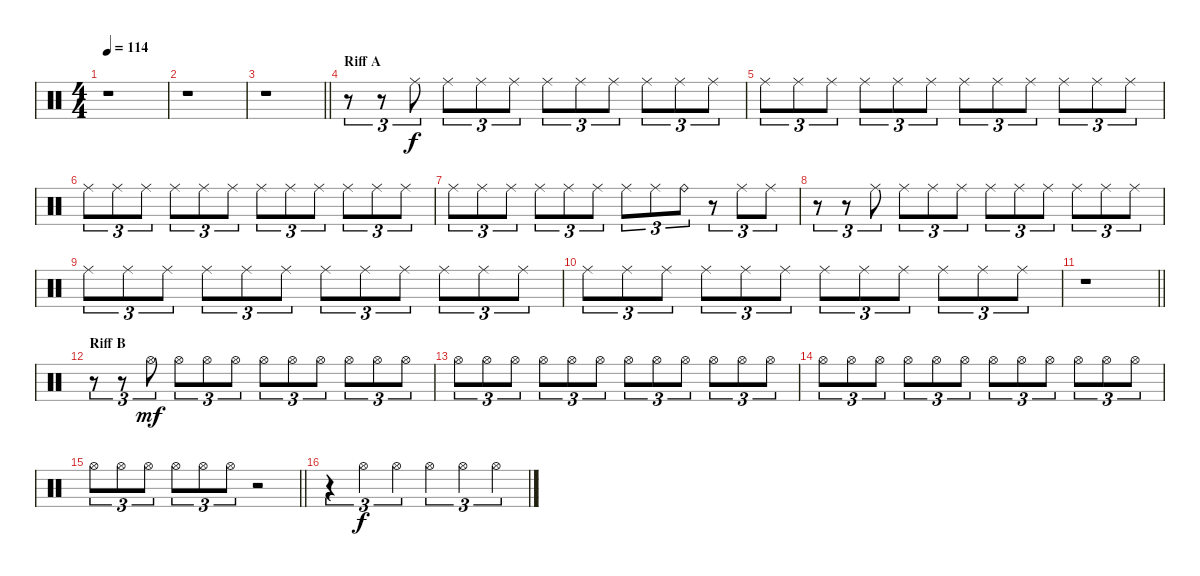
\track "" {instrument percussion}
\staff {score}
\articulation defaults
\ts (4 4)
\tempo 114
\clef neutral
\ks c
r.1{dy f} |
r.1 |
\barLineRight lightlight
r.1 |
\section ("" "Riff A")
r.8{tu (3 2)} r.8{tu (3 2)} "Ride (middle)".8{tu (3 2)} "Ride (middle)".8{tu (3 2)} "Ride (middle)".8{tu (3 2)} "Ride (middle)".8{tu (3 2)} "Ride (middle)".8{tu (3 2)} "Ride (middle)".8{tu (3 2)} "Ride (middle)".8{tu (3 2)} "Ride (middle)".8{tu (3 2)} "Ride (middle)".8{tu (3 2)} "Ride (middle)".8{tu (3 2)} |
"Ride (middle)".8{tu (3 2)} "Ride (middle)".8{tu (3 2)} "Ride (middle)".8{tu (3 2)} "Ride (middle)".8{tu (3 2)} "Ride (middle)".8{tu (3 2)} "Ride (middle)".8{tu (3 2)} "Ride (middle)".8{tu (3 2)} "Ride (middle)".8{tu (3 2)} "Ride (middle)".8{tu (3 2)} "Ride (middle)".8{tu (3 2)} "Ride (middle)".8{tu (3 2)} "Ride (middle)".8{tu (3 2)} |
"Ride (middle)".8{tu (3 2)} "Ride (middle)".8{tu (3 2)} "Ride (middle)".8{tu (3 2)} "Ride (middle)".8{tu (3 2)} "Ride (middle)".8{tu (3 2)} "Ride (middle)".8{tu (3 2)} "Ride (middle)".8{tu (3 2)} "Ride (middle)".8{tu (3 2)} "Ride (middle)".8{tu (3 2)} "Ride (middle)".8{tu (3 2)} "Ride (middle)".8{tu (3 2)} "Ride (middle)".8{tu (3 2)} |
"Ride (middle)".8{tu (3 2)} "Ride (middle)".8{tu (3 2)} "Ride (middle)".8{tu (3 2)} "Ride (middle)".8{tu (3 2)} "Ride (middle)".8{tu (3 2)} "Ride (middle)".8{tu (3 2)} "Ride (middle)".8{tu (3 2)} "Ride (middle)".8{tu (3 2)} "Ride (bell)".8{tu (3 2)} r.8{tu (3 2)} "Ride (middle)".8{tu (3 2)} "Ride (middle)".8{tu (3 2)} |
r.8{tu (3 2)} r.8{tu (3 2)} "Ride (middle)".8{tu (3 2)} "Ride (middle)".8{tu (3 2)} "Ride (middle)".8{tu (3 2)} "Ride (middle)".8{tu (3 2)} "Ride (middle)".8{tu (3 2)} "Ride (middle)".8{tu (3 2)} "Ride (middle)".8{tu (3 2)} "Ride (middle)".8{tu (3 2)} "Ride (middle)".8{tu (3 2)} "Ride (middle)".8{tu (3 2)} |
"Ride (middle)".8{tu (3 2)} "Ride (middle)".8{tu (3 2)} "Ride (middle)".8{tu (3 2)} "Ride (middle)".8{tu (3 2)} "Ride (middle)".8{tu (3 2)} "Ride (middle)".8{tu (3 2)} "Ride (middle)".8{tu (3 2)} "Ride (middle)".8{tu (3 2)} "Ride (middle)".8{tu (3 2)} "Ride (middle)".8{tu (3 2)} "Ride (middle)".8{tu (3 2)} "Ride (middle)".8{tu (3 2)} |
"Ride (middle)".8{tu (3 2)} "Ride (middle)".8{tu (3 2)} "Ride (middle)".8{tu (3 2)} "Ride (middle)".8{tu (3 2)} "Ride (middle)".8{tu (3 2)} "Ride (middle)".8{tu (3 2)} "Ride (middle)".8{tu (3 2)} "Ride (middle)".8{tu (3 2)} "Ride (middle)".8{tu (3 2)} "Ride (middle)".8{tu (3 2)} "Ride (middle)".8{tu (3 2)} "Ride (middle)".8{tu (3 2)} |
\barLineRight lightlight
r.1 |
\section ("" "Riff B")
r.8{tu (3 2)} r.8{tu (3 2)} "Hi-Hat (open)".8{tu (3 2) dy mf} "Hi-Hat (open)".8{tu (3 2)} "Hi-Hat (open)".8{tu (3 2)} "Hi-Hat (open)".8{tu (3 2)} "Hi-Hat (open)".8{tu (3 2)} "Hi-Hat (open)".8{tu (3 2)} "Hi-Hat (open)".8{tu (3 2)} "Hi-Hat (open)".8{tu (3 2)} "Hi-Hat (open)".8{tu (3 2)} "Hi-Hat (open)".8{tu (3 2)} |
"Hi-Hat (open)".8{tu (3 2)} "Hi-Hat (open)".8{tu (3 2)} "Hi-Hat (open)".8{tu (3 2)} "Hi-Hat (open)".8{tu (3 2)} "Hi-Hat (open)".8{tu (3 2)} "Hi-Hat (open)".8{tu (3 2)} "Hi-Hat (open)".8{tu (3 2)} "Hi-Hat (open)".8{tu (3 2)} "Hi-Hat (open)".8{tu (3 2)} "Hi-Hat (open)".8{tu (3 2)} "Hi-Hat (open)".8{tu (3 2)} "Hi-Hat (open)".8{tu (3 2)} |
"Hi-Hat (open)".8{tu (3 2)} "Hi-Hat (open)".8{tu (3 2)} "Hi-Hat (open)".8{tu (3 2)} "Hi-Hat (open)".8{tu (3 2)} "Hi-Hat (open)".8{tu (3 2)} "Hi-Hat (open)".8{tu (3 2)} "Hi-Hat (open)".8{tu (3 2)} "Hi-Hat (open)".8{tu (3 2)} "Hi-Hat (open)".8{tu (3 2)} "Hi-Hat (open)".8{tu (3 2)} "Hi-Hat (open)".8{tu (3 2)} "Hi-Hat (open)".8{tu (3 2)} |
\barLineRight lightlight "Hi-Hat (open)".8{tu (3 2)} "Hi-Hat (open)".8{tu (3 2)} "Hi-Hat (open)".8{tu (3 2)} "Hi-Hat (open)".8{tu (3 2)} "Hi-Hat (open)".8{tu (3 2)} "Hi-Hat (open)".8{tu (3 2)}
r.2 |
\section ("" "")
r.4{tu (3 2)} "Hi-Hat (open)".4{tu (3 2) dy f} "Hi-Hat (open)".4{tu (3 2)} "Hi-Hat (open)".4{tu (3 2)} "Hi-Hat (open)".4{tu (3 2)} "Hi-Hat (open)".4{tu (3 2)}
